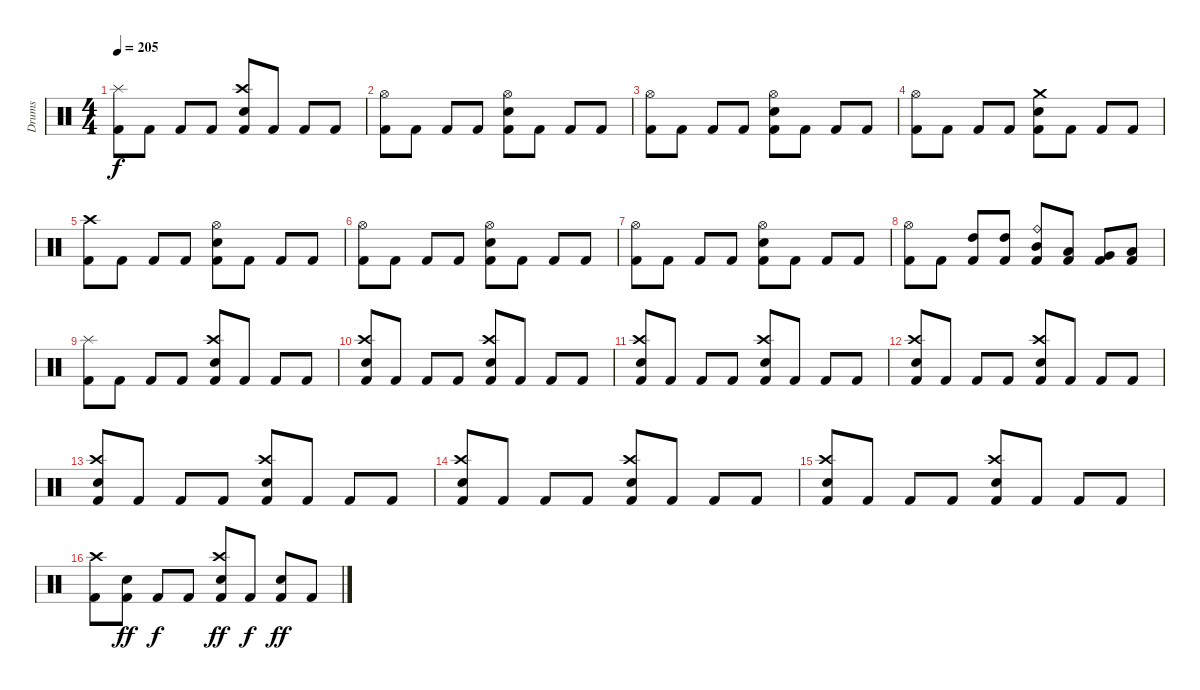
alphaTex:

\track ("Drums" "Drums") {instrument percussion}
\staff {score}
\articulation defaults
\ts (4 4)
\tempo 205
\clef neutral
\ks c
("Splash (hit)" "Kick (hit) 2").8{dy f} "Kick (hit) 2".8 "Kick (hit) 2".8 "Kick (hit) 2".8 ("Crash high (hit)" "Snare (hit) 2" "Kick (hit) 2").8 "Kick (hit) 2".8 "Kick (hit) 2".8 "Kick (hit) 2".8 |
("Hi-Hat (open)" "Kick (hit) 2").8 "Kick (hit) 2".8 "Kick (hit) 2".8 "Kick (hit) 2".8 ("Hi-Hat (open)" "Snare (hit) 2" "Kick (hit) 2").8 "Kick (hit) 2".8 "Kick (hit) 2".8 "Kick (hit) 2".8 |
("Hi-Hat (open)" "Kick (hit) 2").8 "Kick (hit) 2".8 "Kick (hit) 2".8 "Kick (hit) 2".8 ("Hi-Hat (open)" "Snare (hit) 2" "Kick (hit) 2").8 "Kick (hit) 2".8 "Kick (hit) 2".8 "Kick (hit) 2".8 |
("Hi-Hat (open)" "Kick (hit) 2").8 "Kick (hit) 2".8 "Kick (hit) 2".8 "Kick (hit) 2".8 ("Crash medium (hit)" "Snare (hit) 2" "Kick (hit) 2").8 "Kick (hit) 2".8 "Kick (hit) 2".8 "Kick (hit) 2".8 |
("Crash high (hit)" "Kick (hit) 2").8 "Kick (hit) 2".8 "Kick (hit) 2".8 "Kick (hit) 2".8 ("Hi-Hat (open)" "Snare (hit) 2" "Kick (hit) 2").8 "Kick (hit) 2".8 "Kick (hit) 2".8 "Kick (hit) 2".8 |
("Hi-Hat (open)" "Kick (hit) 2").8 "Kick (hit) 2".8 "Kick (hit) 2".8 "Kick (hit) 2".8 ("Hi-Hat (open)" "Snare (hit) 2" "Kick (hit) 2").8 "Kick (hit) 2".8 "Kick (hit) 2".8 "Kick (hit) 2".8 |
("Hi-Hat (open)" "Kick (hit) 2").8 "Kick (hit) 2".8 "Kick (hit) 2".8 "Kick (hit) 2".8 ("Hi-Hat (open)" "Snare (hit) 2" "Kick (hit) 2").8 "Kick (hit) 2".8 "Kick (hit) 2".8 "Kick (hit) 2".8 |
("Hi-Hat (open)" "Kick (hit) 2").8 "Kick (hit) 2".8 ("High Tom (hit)" "Kick (hit) 2").8 ("High Tom (hit)" "Kick (hit) 2").8 ("Ride (bell)" "Mid Tom (hit)" "Kick (hit) 2").8 ("Low Tom (hit)" "Kick (hit) 2").8 ("Very Low Tom (hit)" "Kick (hit) 2").8 ("Low Floor Tom (hit)" "Kick (hit) 2").8 |
("Splash (hit)" "Kick (hit) 2").8 "Kick (hit) 2".8 "Kick (hit) 2".8 "Kick (hit) 2".8 ("Crash high (hit)" "Snare (hit) 2" "Kick (hit) 2").8 "Kick (hit) 2".8 "Kick (hit) 2".8 "Kick (hit) 2".8 |
("Crash high (hit)" "Snare (hit) 2" "Kick (hit) 2").8 "Kick (hit) 2".8 "Kick (hit) 2".8 "Kick (hit) 2".8 ("Crash high (hit)" "Snare (hit) 2" "Kick (hit) 2").8 "Kick (hit) 2".8 "Kick (hit) 2".8 "Kick (hit) 2".8 |
("Crash high (hit)" "Snare (hit) 2" "Kick (hit) 2").8 "Kick (hit) 2".8 "Kick (hit) 2".8 "Kick (hit) 2".8 ("Crash high (hit)" "Snare (hit) 2" "Kick (hit) 2").8 "Kick (hit) 2".8 "Kick (hit) 2".8 "Kick (hit) 2".8 |
("Crash high (hit)" "Snare (hit) 2" "Kick (hit) 2").8 "Kick (hit) 2".8 "Kick (hit) 2".8 "Kick (hit) 2".8 ("Crash high (hit)" "Snare (hit) 2" "Kick (hit) 2").8 "Kick (hit) 2".8 "Kick (hit) 2".8 "Kick (hit) 2".8 |
("Crash high (hit)" "Snare (hit) 2" "Kick (hit) 2").8 "Kick (hit) 2".8 "Kick (hit) 2".8 "Kick (hit) 2".8 ("Crash high (hit)" "Snare (hit) 2" "Kick (hit) 2").8 "Kick (hit) 2".8 "Kick (hit) 2".8 "Kick (hit) 2".8 |
("Crash high (hit)" "Snare (hit) 2" "Kick (hit) 2").8 "Kick (hit) 2".8 "Kick (hit) 2".8 "Kick (hit) 2".8 ("Crash high (hit)" "Snare (hit) 2" "Kick (hit) 2").8 "Kick (hit) 2".8 "Kick (hit) 2".8 "Kick (hit) 2".8 |
("Crash high (hit)" "Snare (hit) 2" "Kick (hit) 2").8 "Kick (hit) 2".8 "Kick (hit) 2".8 "Kick (hit) 2".8 ("Crash high (hit)" "Snare (hit) 2" "Kick (hit) 2").8 "Kick (hit) 2".8 "Kick (hit) 2".8 "Kick (hit) 2".8 |
("Crash high (hit)" "Kick (hit) 2").8 ("Snare (hit) 2" "Kick (hit) 2").8{dy ff} "Kick (hit) 2".8{dy f} "Kick (hit) 2".8 ("Crash high (hit)" "Snare (hit) 2" "Kick (hit) 2").8{dy ff} "Kick (hit) 2".8{dy f} ("Snare (hit) 2" "Kick (hit) 2").8{dy ff} "Kick (hit) 2".8
